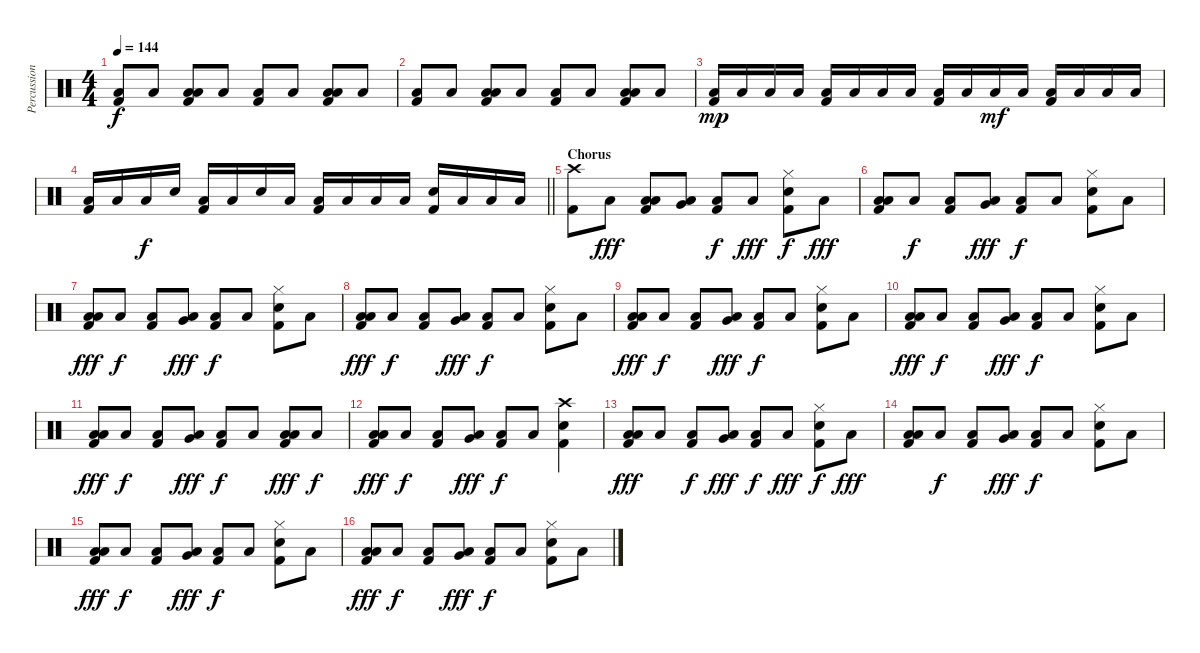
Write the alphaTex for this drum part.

\track ("Percussion" "Percussion") {instrument percussion}
\staff {score}
\articulation defaults
\ts (4 4)
\tempo 144
\clef neutral
\ks c
("Low Floor Tom (hit)" "Kick (hit) 2").8{dy f} "Low Floor Tom (hit)".8 ("Low Tom (hit)" "Low Floor Tom (hit)" "Kick (hit) 2").8 "Low Floor Tom (hit)".8 ("Low Floor Tom (hit)" "Kick (hit) 2").8 "Low Floor Tom (hit)".8 ("Low Tom (hit)" "Low Floor Tom (hit)" "Kick (hit) 2").8 "Low Floor Tom (hit)".8 |
("Low Floor Tom (hit)" "Kick (hit) 2").8 "Low Floor Tom (hit)".8 ("Low Tom (hit)" "Low Floor Tom (hit)" "Kick (hit) 2").8 "Low Floor Tom (hit)".8 ("Low Floor Tom (hit)" "Kick (hit) 2").8 "Low Floor Tom (hit)".8 ("Low Tom (hit)" "Low Floor Tom (hit)" "Kick (hit) 2").8 "Low Floor Tom (hit)".8 |
("Low Tom (hit)" "Kick (hit) 2").16{dy mp} "Low Tom (hit)".16 "Low Tom (hit)".16 "Low Tom (hit)".16 ("Low Tom (hit)" "Kick (hit) 2").16 "Low Tom (hit)".16 "Low Tom (hit)".16 "Low Tom (hit)".16 ("Low Tom (hit)" "Kick (hit) 2").16 "Low Tom (hit)".16 "Low Tom (hit)".16{dy mf} "Low Tom (hit)".16 ("Low Tom (hit)" "Kick (hit) 2").16 "Low Tom (hit)".16 "Low Tom (hit)".16 "Low Tom (hit)".16 |
\barLineRight lightlight
("Low Tom (hit)" "Kick (hit) 2").16 "Low Tom (hit)".16 "Low Tom (hit)".16{dy f} "Electric Snare (hit)".16 ("Low Tom (hit)" "Kick (hit) 2").16 "Low Tom (hit)".16 "Electric Snare (hit)".16 "Low Tom (hit)".16 ("Low Tom (hit)" "Kick (hit) 2").16 "Low Tom (hit)".16 "Low Tom (hit)".16 "Low Tom (hit)".16 ("Electric Snare (hit)" "Kick (hit) 2").16 "Low Tom (hit)".16 "Low Tom (hit)".16 "Low Tom (hit)".16 |
\section ("" "Chorus")
("Crash high (hit)" "Kick (hit) 2").8 "Low Floor Tom (hit)".8{dy fff} ("Low Tom (hit)" "Low Floor Tom (hit)" "Kick (hit) 2").8 ("Very Low Tom (hit)" "Low Floor Tom (hit)").8 ("Low Floor Tom (hit)" "Kick (hit) 2").8{dy f} "Low Floor Tom (hit)".8{dy fff} ("Hi-Hat (closed)" "Electric Snare (hit)" "Kick (hit) 2").8{dy f} "Low Floor Tom (hit)".8{dy fff} |
("Low Tom (hit)" "Low Floor Tom (hit)" "Kick (hit) 2").8 "Low Floor Tom (hit)".8{dy f} ("Low Floor Tom (hit)" "Kick (hit) 2").8 ("Very Low Tom (hit)" "Low Floor Tom (hit)").8{dy fff} ("Low Floor Tom (hit)" "Kick (hit) 2").8{dy f} "Low Floor Tom (hit)".8 ("Hi-Hat (closed)" "Electric Snare (hit)" "Kick (hit) 2").8 "Low Floor Tom (hit)".8 |
("Low Tom (hit)" "Low Floor Tom (hit)" "Kick (hit) 2").8{dy fff} "Low Floor Tom (hit)".8{dy f} ("Low Floor Tom (hit)" "Kick (hit) 2").8 ("Very Low Tom (hit)" "Low Floor Tom (hit)").8{dy fff} ("Low Floor Tom (hit)" "Kick (hit) 2").8{dy f} "Low Floor Tom (hit)".8 ("Hi-Hat (closed)" "Electric Snare (hit)" "Kick (hit) 2").8 "Low Floor Tom (hit)".8 |
("Low Tom (hit)" "Low Floor Tom (hit)" "Kick (hit) 2").8{dy fff} "Low Floor Tom (hit)".8{dy f} ("Low Floor Tom (hit)" "Kick (hit) 2").8 ("Very Low Tom (hit)" "Low Floor Tom (hit)").8{dy fff} ("Low Floor Tom (hit)" "Kick (hit) 2").8{dy f} "Low Floor Tom (hit)".8 ("Hi-Hat (closed)" "Electric Snare (hit)" "Kick (hit) 2").8 "Low Floor Tom (hit)".8 |
("Low Tom (hit)" "Low Floor Tom (hit)" "Kick (hit) 2").8{dy fff} "Low Floor Tom (hit)".8{dy f} ("Low Floor Tom (hit)" "Kick (hit) 2").8 ("Very Low Tom (hit)" "Low Floor Tom (hit)").8{dy fff} ("Low Floor Tom (hit)" "Kick (hit) 2").8{dy f} "Low Floor Tom (hit)".8 ("Hi-Hat (closed)" "Electric Snare (hit)" "Kick (hit) 2").8 "Low Floor Tom (hit)".8 |
("Low Tom (hit)" "Low Floor Tom (hit)" "Kick (hit) 2").8{dy fff} "Low Floor Tom (hit)".8{dy f} ("Low Floor Tom (hit)" "Kick (hit) 2").8 ("Very Low Tom (hit)" "Low Floor Tom (hit)").8{dy fff} ("Low Floor Tom (hit)" "Kick (hit) 2").8{dy f} "Low Floor Tom (hit)".8 ("Hi-Hat (closed)" "Electric Snare (hit)" "Kick (hit) 2").8 "Low Floor Tom (hit)".8 |
("Low Tom (hit)" "Low Floor Tom (hit)" "Kick (hit) 2").8{dy fff} "Low Floor Tom (hit)".8{dy f} ("Low Floor Tom (hit)" "Kick (hit) 2").8 ("Very Low Tom (hit)" "Low Floor Tom (hit)").8{dy fff} ("Low Floor Tom (hit)" "Kick (hit) 2").8{dy f} "Low Floor Tom (hit)".8 ("Low Tom (hit)" "Low Floor Tom (hit)" "Kick (hit) 2").8{dy fff} "Low Floor Tom (hit)".8{dy f} |
("Low Tom (hit)" "Low Floor Tom (hit)" "Kick (hit) 2").8{dy fff} "Low Floor Tom (hit)".8{dy f} ("Low Floor Tom (hit)" "Kick (hit) 2").8 ("Very Low Tom (hit)" "Low Floor Tom (hit)").8{dy fff} ("Low Floor Tom (hit)" "Kick (hit) 2").8{dy f} "Low Floor Tom (hit)".8 ("Crash high (hit)" "Electric Snare (hit)" "Kick (hit) 2").4 |
("Low Tom (hit)" "Low Floor Tom (hit)" "Kick (hit) 2").8{dy fff} "Low Floor Tom (hit)".8 ("Low Floor Tom (hit)" "Kick (hit) 2").8{dy f} ("Very Low Tom (hit)" "Low Floor Tom (hit)").8{dy fff} ("Low Floor Tom (hit)" "Kick (hit) 2").8{dy f} "Low Floor Tom (hit)".8{dy fff} ("Hi-Hat (closed)" "Electric Snare (hit)" "Kick (hit) 2").8{dy f} "Low Floor Tom (hit)".8{dy fff} |
("Low Tom (hit)" "Low Floor Tom (hit)" "Kick (hit) 2").8 "Low Floor Tom (hit)".8{dy f} ("Low Floor Tom (hit)" "Kick (hit) 2").8 ("Very Low Tom (hit)" "Low Floor Tom (hit)").8{dy fff} ("Low Floor Tom (hit)" "Kick (hit) 2").8{dy f} "Low Floor Tom (hit)".8 ("Hi-Hat (closed)" "Electric Snare (hit)" "Kick (hit) 2").8 "Low Floor Tom (hit)".8 |
("Low Tom (hit)" "Low Floor Tom (hit)" "Kick (hit) 2").8{dy fff} "Low Floor Tom (hit)".8{dy f} ("Low Floor Tom (hit)" "Kick (hit) 2").8 ("Very Low Tom (hit)" "Low Floor Tom (hit)").8{dy fff} ("Low Floor Tom (hit)" "Kick (hit) 2").8{dy f} "Low Floor Tom (hit)".8 ("Hi-Hat (closed)" "Electric Snare (hit)" "Kick (hit) 2").8 "Low Floor Tom (hit)".8 |
("Low Tom (hit)" "Low Floor Tom (hit)" "Kick (hit) 2").8{dy fff} "Low Floor Tom (hit)".8{dy f} ("Low Floor Tom (hit)" "Kick (hit) 2").8 ("Very Low Tom (hit)" "Low Floor Tom (hit)").8{dy fff} ("Low Floor Tom (hit)" "Kick (hit) 2").8{dy f} "Low Floor Tom (hit)".8 ("Hi-Hat (closed)" "Electric Snare (hit)" "Kick (hit) 2").8 "Low Floor Tom (hit)".8
